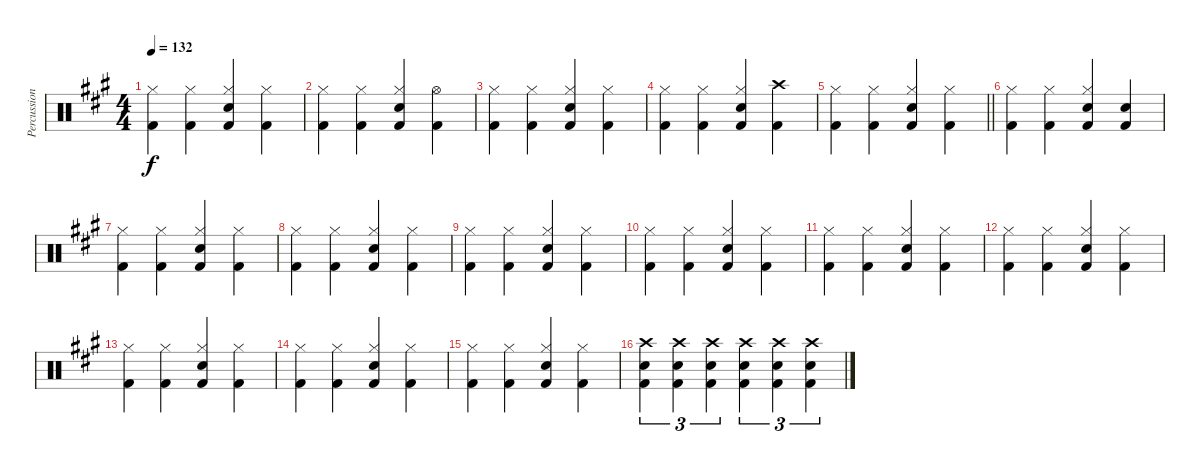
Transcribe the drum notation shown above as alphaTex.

\track ("Percussion" "Percussion") {instrument percussion}
\staff {score}
\articulation defaults
\ts (4 4)
\tempo 132
\clef neutral
\ks a
("Kick (hit) 2" "Hi-Hat (closed)").4{dy f} ("Kick (hit) 2" "Hi-Hat (closed)").4 ("Kick (hit) 2" "Electric Snare (hit)" "Hi-Hat (closed)").4 ("Kick (hit) 2" "Hi-Hat (closed)").4 |
("Kick (hit) 2" "Hi-Hat (closed)").4 ("Kick (hit) 2" "Hi-Hat (closed)").4 ("Kick (hit) 2" "Electric Snare (hit)" "Hi-Hat (closed)").4 ("Kick (hit) 2" "Hi-Hat (open)").4 |
("Kick (hit) 2" "Hi-Hat (closed)").4 ("Kick (hit) 2" "Hi-Hat (closed)").4 ("Kick (hit) 2" "Electric Snare (hit)" "Hi-Hat (closed)").4 ("Kick (hit) 2" "Hi-Hat (closed)").4 |
("Kick (hit) 2" "Hi-Hat (closed)").4 ("Kick (hit) 2" "Hi-Hat (closed)").4 ("Kick (hit) 2" "Electric Snare (hit)" "Hi-Hat (closed)").4 ("Kick (hit) 2" "Crash high (hit)").4 |
\barLineRight lightlight
("Kick (hit) 2" "Hi-Hat (closed)").4 ("Kick (hit) 2" "Hi-Hat (closed)").4 ("Kick (hit) 2" "Electric Snare (hit)" "Hi-Hat (closed)").4 ("Kick (hit) 2" "Hi-Hat (closed)").4 |
("Kick (hit) 2" "Hi-Hat (closed)").4 ("Kick (hit) 2" "Hi-Hat (closed)").4 ("Kick (hit) 2" "Electric Snare (hit)" "Hi-Hat (closed)").4 ("Kick (hit) 2" "Snare (hit)").4 |
("Kick (hit) 2" "Hi-Hat (closed)").4 ("Kick (hit) 2" "Hi-Hat (closed)").4 ("Kick (hit) 2" "Electric Snare (hit)" "Hi-Hat (closed)").4 ("Kick (hit) 2" "Hi-Hat (closed)").4 |
("Kick (hit) 2" "Hi-Hat (closed)").4 ("Kick (hit) 2" "Hi-Hat (closed)").4 ("Kick (hit) 2" "Electric Snare (hit)" "Hi-Hat (closed)").4 ("Kick (hit) 2" "Hi-Hat (closed)").4 |
("Kick (hit) 2" "Hi-Hat (closed)").4 ("Kick (hit) 2" "Hi-Hat (closed)").4 ("Kick (hit) 2" "Electric Snare (hit)" "Hi-Hat (closed)").4 ("Kick (hit) 2" "Hi-Hat (closed)").4 |
("Kick (hit) 2" "Hi-Hat (closed)").4 ("Kick (hit) 2" "Hi-Hat (closed)").4 ("Kick (hit) 2" "Electric Snare (hit)" "Hi-Hat (closed)").4 ("Kick (hit) 2" "Hi-Hat (closed)").4 |
("Kick (hit) 2" "Hi-Hat (closed)").4 ("Kick (hit) 2" "Hi-Hat (closed)").4 ("Kick (hit) 2" "Electric Snare (hit)" "Hi-Hat (closed)").4 ("Kick (hit) 2" "Hi-Hat (closed)").4 |
("Kick (hit) 2" "Hi-Hat (closed)").4 ("Kick (hit) 2" "Hi-Hat (closed)").4 ("Kick (hit) 2" "Electric Snare (hit)" "Hi-Hat (closed)").4 ("Kick (hit) 2" "Hi-Hat (closed)").4 |
("Kick (hit) 2" "Hi-Hat (closed)").4 ("Kick (hit) 2" "Hi-Hat (closed)").4 ("Kick (hit) 2" "Electric Snare (hit)" "Hi-Hat (closed)").4 ("Kick (hit) 2" "Hi-Hat (closed)").4 |
("Kick (hit) 2" "Hi-Hat (closed)").4 ("Kick (hit) 2" "Hi-Hat (closed)").4 ("Kick (hit) 2" "Electric Snare (hit)" "Hi-Hat (closed)").4 ("Kick (hit) 2" "Hi-Hat (closed)").4 |
("Kick (hit) 2" "Hi-Hat (closed)").4 ("Kick (hit) 2" "Hi-Hat (closed)").4 ("Kick (hit) 2" "Electric Snare (hit)" "Hi-Hat (closed)").4 ("Kick (hit) 2" "Hi-Hat (closed)").4 |
("Kick (hit) 2" "Electric Snare (hit)" "Crash high (hit)").4{tu (3 2)} ("Kick (hit) 2" "Electric Snare (hit)" "Crash high (hit)").4{tu (3 2)} ("Kick (hit) 2" "Electric Snare (hit)" "Crash high (hit)").4{tu (3 2)} ("Kick (hit) 2" "Electric Snare (hit)" "Crash high (hit)").4{tu (3 2)} ("Kick (hit) 2" "Electric Snare (hit)" "Crash high (hit)").4{tu (3 2)} ("Kick (hit) 2" "Electric Snare (hit)" "Crash high (hit)").4{tu (3 2)}
